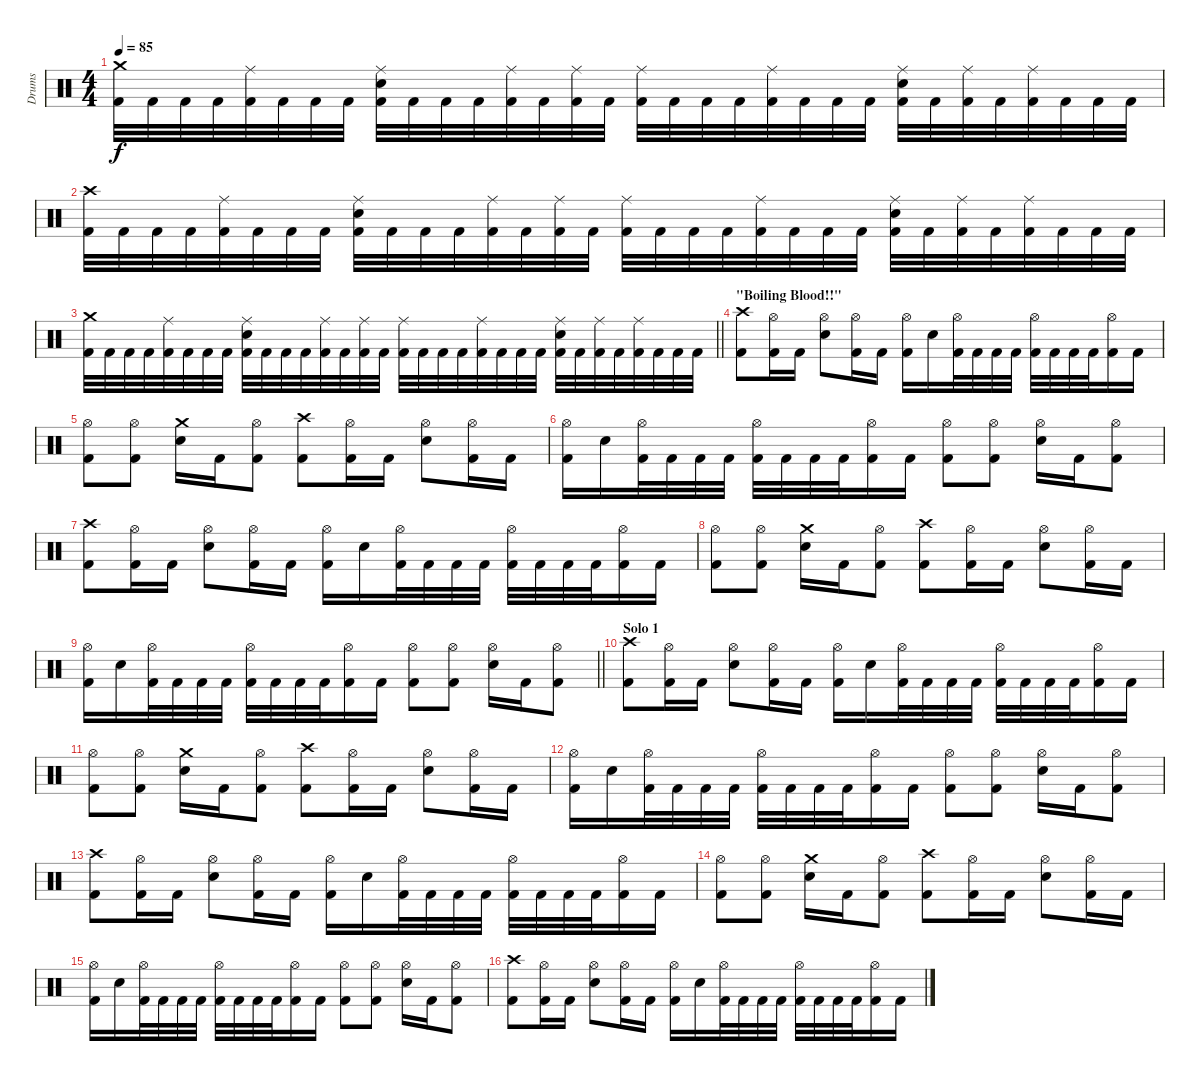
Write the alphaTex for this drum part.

\track ("Drums" "Drums") {instrument percussion}
\staff {score}
\articulation defaults
\ts (4 4)
\tempo 85
\clef neutral
\ks c
("Crash medium (hit)" "Kick (hit) 2").32{dy f} "Kick (hit) 2".32 "Kick (hit) 2".32 "Kick (hit) 2".32 ("Ride (middle)" "Kick (hit) 2").32 "Kick (hit) 2".32 "Kick (hit) 2".32 "Kick (hit) 2".32 ("Ride (middle)" "Electric Snare (hit)" "Kick (hit) 2").32 "Kick (hit) 2".32 "Kick (hit) 2".32 "Kick (hit) 2".32 ("Ride (middle)" "Kick (hit) 2").32 "Kick (hit) 2".32 ("Ride (middle)" "Kick (hit) 2").32 "Kick (hit) 2".32 ("Ride (middle)" "Kick (hit) 2").32 "Kick (hit) 2".32 "Kick (hit) 2".32 "Kick (hit) 2".32 ("Ride (middle)" "Kick (hit) 2").32 "Kick (hit) 2".32 "Kick (hit) 2".32 "Kick (hit) 2".32 ("Ride (middle)" "Electric Snare (hit)" "Kick (hit) 2").32 "Kick (hit) 2".32 ("Ride (middle)" "Kick (hit) 2").32 "Kick (hit) 2".32 ("Ride (middle)" "Kick (hit) 2").32 "Kick (hit) 2".32 "Kick (hit) 2".32 "Kick (hit) 2".32 |
("Crash high (hit)" "Kick (hit) 2").32 "Kick (hit) 2".32 "Kick (hit) 2".32 "Kick (hit) 2".32 ("Ride (middle)" "Kick (hit) 2").32 "Kick (hit) 2".32 "Kick (hit) 2".32 "Kick (hit) 2".32 ("Ride (middle)" "Electric Snare (hit)" "Kick (hit) 2").32 "Kick (hit) 2".32 "Kick (hit) 2".32 "Kick (hit) 2".32 ("Ride (middle)" "Kick (hit) 2").32 "Kick (hit) 2".32 ("Ride (middle)" "Kick (hit) 2").32 "Kick (hit) 2".32 ("Ride (middle)" "Kick (hit) 2").32 "Kick (hit) 2".32 "Kick (hit) 2".32 "Kick (hit) 2".32 ("Ride (middle)" "Kick (hit) 2").32 "Kick (hit) 2".32 "Kick (hit) 2".32 "Kick (hit) 2".32 ("Ride (middle)" "Electric Snare (hit)" "Kick (hit) 2").32 "Kick (hit) 2".32 ("Ride (middle)" "Kick (hit) 2").32 "Kick (hit) 2".32 ("Ride (middle)" "Kick (hit) 2").32 "Kick (hit) 2".32 "Kick (hit) 2".32 "Kick (hit) 2".32 |
\barLineRight lightlight
("Crash medium (hit)" "Kick (hit) 2").32 "Kick (hit) 2".32 "Kick (hit) 2".32 "Kick (hit) 2".32 ("Ride (middle)" "Kick (hit) 2").32 "Kick (hit) 2".32 "Kick (hit) 2".32 "Kick (hit) 2".32 ("Ride (middle)" "Electric Snare (hit)" "Kick (hit) 2").32 "Kick (hit) 2".32 "Kick (hit) 2".32 "Kick (hit) 2".32 ("Ride (middle)" "Kick (hit) 2").32 "Kick (hit) 2".32 ("Ride (middle)" "Kick (hit) 2").32 "Kick (hit) 2".32 ("Ride (middle)" "Kick (hit) 2").32 "Kick (hit) 2".32 "Kick (hit) 2".32 "Kick (hit) 2".32 ("Ride (middle)" "Kick (hit) 2").32 "Kick (hit) 2".32 "Kick (hit) 2".32 "Kick (hit) 2".32 ("Ride (middle)" "Electric Snare (hit)" "Kick (hit) 2").32 "Kick (hit) 2".32 ("Ride (middle)" "Kick (hit) 2").32 "Kick (hit) 2".32 ("Ride (middle)" "Kick (hit) 2").32 "Kick (hit) 2".32 "Kick (hit) 2".32 "Kick (hit) 2".32 |
\section ("" "\"Boiling Blood!!\"")
("Crash high (hit)" "Kick (hit) 2").8 ("Hi-Hat (open)" "Kick (hit) 2").16 "Kick (hit) 2".16 ("Hi-Hat (open)" "Electric Snare (hit)").8 ("Hi-Hat (open)" "Kick (hit) 2").16 "Kick (hit) 2".16 ("Hi-Hat (open)" "Kick (hit) 2").16 "Electric Snare (hit)".16 ("Hi-Hat (open)" "Kick (hit) 2").32 "Kick (hit) 2".32 "Kick (hit) 2".32 "Kick (hit) 2".32 ("Hi-Hat (open)" "Kick (hit) 2").32 "Kick (hit) 2".32 "Kick (hit) 2".32 "Kick (hit) 2".32 ("Hi-Hat (open)" "Kick (hit) 2").16 "Kick (hit) 2".16 |
("Hi-Hat (open)" "Kick (hit) 2").8 ("Hi-Hat (open)" "Kick (hit) 2").8 ("Crash medium (hit)" "Electric Snare (hit)").16 "Kick (hit) 2".16 ("Hi-Hat (open)" "Kick (hit) 2").8 ("Crash high (hit)" "Kick (hit) 2").8 ("Hi-Hat (open)" "Kick (hit) 2").16 "Kick (hit) 2".16 ("Hi-Hat (open)" "Electric Snare (hit)").8 ("Hi-Hat (open)" "Kick (hit) 2").16 "Kick (hit) 2".16 |
("Hi-Hat (open)" "Kick (hit) 2").16 "Electric Snare (hit)".16 ("Hi-Hat (open)" "Kick (hit) 2").32 "Kick (hit) 2".32 "Kick (hit) 2".32 "Kick (hit) 2".32 ("Hi-Hat (open)" "Kick (hit) 2").32 "Kick (hit) 2".32 "Kick (hit) 2".32 "Kick (hit) 2".32 ("Hi-Hat (open)" "Kick (hit) 2").16 "Kick (hit) 2".16 ("Hi-Hat (open)" "Kick (hit) 2").8 ("Hi-Hat (open)" "Kick (hit) 2").8 ("Hi-Hat (open)" "Electric Snare (hit)").16 "Kick (hit) 2".16 ("Hi-Hat (open)" "Kick (hit) 2").8 |
("Crash high (hit)" "Kick (hit) 2").8 ("Hi-Hat (open)" "Kick (hit) 2").16 "Kick (hit) 2".16 ("Hi-Hat (open)" "Electric Snare (hit)").8 ("Hi-Hat (open)" "Kick (hit) 2").16 "Kick (hit) 2".16 ("Hi-Hat (open)" "Kick (hit) 2").16 "Electric Snare (hit)".16 ("Hi-Hat (open)" "Kick (hit) 2").32 "Kick (hit) 2".32 "Kick (hit) 2".32 "Kick (hit) 2".32 ("Hi-Hat (open)" "Kick (hit) 2").32 "Kick (hit) 2".32 "Kick (hit) 2".32 "Kick (hit) 2".32 ("Hi-Hat (open)" "Kick (hit) 2").16 "Kick (hit) 2".16 |
("Hi-Hat (open)" "Kick (hit) 2").8 ("Hi-Hat (open)" "Kick (hit) 2").8 ("Crash medium (hit)" "Electric Snare (hit)").16 "Kick (hit) 2".16 ("Hi-Hat (open)" "Kick (hit) 2").8 ("Crash high (hit)" "Kick (hit) 2").8 ("Hi-Hat (open)" "Kick (hit) 2").16 "Kick (hit) 2".16 ("Hi-Hat (open)" "Electric Snare (hit)").8 ("Hi-Hat (open)" "Kick (hit) 2").16 "Kick (hit) 2".16 |
\barLineRight lightlight
("Hi-Hat (open)" "Kick (hit) 2").16 "Electric Snare (hit)".16 ("Hi-Hat (open)" "Kick (hit) 2").32 "Kick (hit) 2".32 "Kick (hit) 2".32 "Kick (hit) 2".32 ("Hi-Hat (open)" "Kick (hit) 2").32 "Kick (hit) 2".32 "Kick (hit) 2".32 "Kick (hit) 2".32 ("Hi-Hat (open)" "Kick (hit) 2").16 "Kick (hit) 2".16 ("Hi-Hat (open)" "Kick (hit) 2").8 ("Hi-Hat (open)" "Kick (hit) 2").8 ("Hi-Hat (open)" "Electric Snare (hit)").16 "Kick (hit) 2".16 ("Hi-Hat (open)" "Kick (hit) 2").8 |
\section ("" "Solo 1")
("Crash high (hit)" "Kick (hit) 2").8 ("Hi-Hat (open)" "Kick (hit) 2").16 "Kick (hit) 2".16 ("Hi-Hat (open)" "Electric Snare (hit)").8 ("Hi-Hat (open)" "Kick (hit) 2").16 "Kick (hit) 2".16 ("Hi-Hat (open)" "Kick (hit) 2").16 "Electric Snare (hit)".16 ("Hi-Hat (open)" "Kick (hit) 2").32 "Kick (hit) 2".32 "Kick (hit) 2".32 "Kick (hit) 2".32 ("Hi-Hat (open)" "Kick (hit) 2").32 "Kick (hit) 2".32 "Kick (hit) 2".32 "Kick (hit) 2".32 ("Hi-Hat (open)" "Kick (hit) 2").16 "Kick (hit) 2".16 |
("Hi-Hat (open)" "Kick (hit) 2").8 ("Hi-Hat (open)" "Kick (hit) 2").8 ("Crash medium (hit)" "Electric Snare (hit)").16 "Kick (hit) 2".16 ("Hi-Hat (open)" "Kick (hit) 2").8 ("Crash high (hit)" "Kick (hit) 2").8 ("Hi-Hat (open)" "Kick (hit) 2").16 "Kick (hit) 2".16 ("Hi-Hat (open)" "Electric Snare (hit)").8 ("Hi-Hat (open)" "Kick (hit) 2").16 "Kick (hit) 2".16 |
("Hi-Hat (open)" "Kick (hit) 2").16 "Electric Snare (hit)".16 ("Hi-Hat (open)" "Kick (hit) 2").32 "Kick (hit) 2".32 "Kick (hit) 2".32 "Kick (hit) 2".32 ("Hi-Hat (open)" "Kick (hit) 2").32 "Kick (hit) 2".32 "Kick (hit) 2".32 "Kick (hit) 2".32 ("Hi-Hat (open)" "Kick (hit) 2").16 "Kick (hit) 2".16 ("Hi-Hat (open)" "Kick (hit) 2").8 ("Hi-Hat (open)" "Kick (hit) 2").8 ("Hi-Hat (open)" "Electric Snare (hit)").16 "Kick (hit) 2".16 ("Hi-Hat (open)" "Kick (hit) 2").8 |
("Crash high (hit)" "Kick (hit) 2").8 ("Hi-Hat (open)" "Kick (hit) 2").16 "Kick (hit) 2".16 ("Hi-Hat (open)" "Electric Snare (hit)").8 ("Hi-Hat (open)" "Kick (hit) 2").16 "Kick (hit) 2".16 ("Hi-Hat (open)" "Kick (hit) 2").16 "Electric Snare (hit)".16 ("Hi-Hat (open)" "Kick (hit) 2").32 "Kick (hit) 2".32 "Kick (hit) 2".32 "Kick (hit) 2".32 ("Hi-Hat (open)" "Kick (hit) 2").32 "Kick (hit) 2".32 "Kick (hit) 2".32 "Kick (hit) 2".32 ("Hi-Hat (open)" "Kick (hit) 2").16 "Kick (hit) 2".16 |
("Hi-Hat (open)" "Kick (hit) 2").8 ("Hi-Hat (open)" "Kick (hit) 2").8 ("Crash medium (hit)" "Electric Snare (hit)").16 "Kick (hit) 2".16 ("Hi-Hat (open)" "Kick (hit) 2").8 ("Crash high (hit)" "Kick (hit) 2").8 ("Hi-Hat (open)" "Kick (hit) 2").16 "Kick (hit) 2".16 ("Hi-Hat (open)" "Electric Snare (hit)").8 ("Hi-Hat (open)" "Kick (hit) 2").16 "Kick (hit) 2".16 |
("Hi-Hat (open)" "Kick (hit) 2").16 "Electric Snare (hit)".16 ("Hi-Hat (open)" "Kick (hit) 2").32 "Kick (hit) 2".32 "Kick (hit) 2".32 "Kick (hit) 2".32 ("Hi-Hat (open)" "Kick (hit) 2").32 "Kick (hit) 2".32 "Kick (hit) 2".32 "Kick (hit) 2".32 ("Hi-Hat (open)" "Kick (hit) 2").16 "Kick (hit) 2".16 ("Hi-Hat (open)" "Kick (hit) 2").8 ("Hi-Hat (open)" "Kick (hit) 2").8 ("Hi-Hat (open)" "Electric Snare (hit)").16 "Kick (hit) 2".16 ("Hi-Hat (open)" "Kick (hit) 2").8 |
("Crash high (hit)" "Kick (hit) 2").8 ("Hi-Hat (open)" "Kick (hit) 2").16 "Kick (hit) 2".16 ("Hi-Hat (open)" "Electric Snare (hit)").8 ("Hi-Hat (open)" "Kick (hit) 2").16 "Kick (hit) 2".16 ("Hi-Hat (open)" "Kick (hit) 2").16 "Electric Snare (hit)".16 ("Hi-Hat (open)" "Kick (hit) 2").32 "Kick (hit) 2".32 "Kick (hit) 2".32 "Kick (hit) 2".32 ("Hi-Hat (open)" "Kick (hit) 2").32 "Kick (hit) 2".32 "Kick (hit) 2".32 "Kick (hit) 2".32 ("Hi-Hat (open)" "Kick (hit) 2").16 "Kick (hit) 2".16
